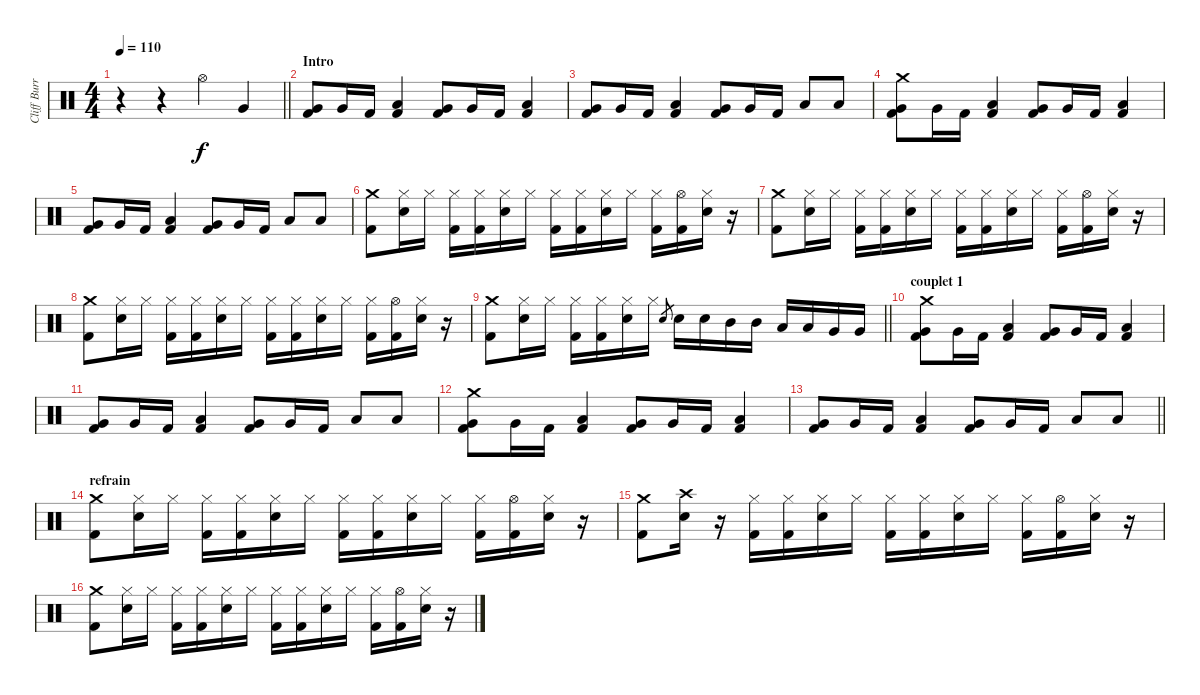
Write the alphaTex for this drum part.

\track ("Cliff Burr" "Cliff Burr") {instrument percussion}
\staff {score}
\articulation defaults
\ts (4 4)
\tempo 110
\clef neutral
\barLineRight lightlight
\ks c
r.4{dy f} r.4 "Hi-Hat (open)".4 "Very Low Tom (hit)".4 |
\section ("" "Intro")
("Very Low Tom (hit)" "Kick (hit) 2").8 "Very Low Tom (hit)".16 "Kick (hit) 2".16 ("Low Tom (hit)" "Kick (hit) 2").4 ("Very Low Tom (hit)" "Kick (hit) 2").8 "Very Low Tom (hit)".16 "Kick (hit) 2".16 ("Low Tom (hit)" "Kick (hit) 2").4 |
("Very Low Tom (hit)" "Kick (hit) 2").8 "Very Low Tom (hit)".16 "Kick (hit) 2".16 ("Low Tom (hit)" "Kick (hit) 2").4 ("Very Low Tom (hit)" "Kick (hit) 2").8 "Very Low Tom (hit)".16 "Kick (hit) 2".16 "Low Tom (hit)".8 "Low Tom (hit)".8 |
("Crash medium (hit)" "Very Low Tom (hit)" "Kick (hit) 2").8 "Very Low Tom (hit)".16 "Kick (hit) 2".16 ("Low Tom (hit)" "Kick (hit) 2").4 ("Very Low Tom (hit)" "Kick (hit) 2").8 "Very Low Tom (hit)".16 "Kick (hit) 2".16 ("Low Tom (hit)" "Kick (hit) 2").4 |
("Very Low Tom (hit)" "Kick (hit) 2").8 "Very Low Tom (hit)".16 "Kick (hit) 2".16 ("Low Tom (hit)" "Kick (hit) 2").4 ("Very Low Tom (hit)" "Kick (hit) 2").8 "Very Low Tom (hit)".16 "Kick (hit) 2".16 "Low Tom (hit)".8 "Low Tom (hit)".8 |
("Crash medium (hit)" "Kick (hit) 2").8 ("Hi-Hat (closed)" "Electric Snare (hit)").16 "Hi-Hat (closed)".16 ("Hi-Hat (closed)" "Kick (hit) 2").16 ("Hi-Hat (closed)" "Kick (hit) 2").16 ("Hi-Hat (closed)" "Electric Snare (hit)").16 "Hi-Hat (closed)".16 ("Hi-Hat (closed)" "Kick (hit) 2").16 ("Hi-Hat (closed)" "Kick (hit) 2").16 ("Hi-Hat (closed)" "Electric Snare (hit)").16 "Hi-Hat (closed)".16 ("Hi-Hat (closed)" "Kick (hit) 2").16 ("Hi-Hat (open)" "Kick (hit) 2").16 ("Hi-Hat (closed)" "Electric Snare (hit)").16 r.16 |
("Crash medium (hit)" "Kick (hit) 2").8 ("Hi-Hat (closed)" "Electric Snare (hit)").16 "Hi-Hat (closed)".16 ("Hi-Hat (closed)" "Kick (hit) 2").16 ("Hi-Hat (closed)" "Kick (hit) 2").16 ("Hi-Hat (closed)" "Electric Snare (hit)").16 "Hi-Hat (closed)".16 ("Hi-Hat (closed)" "Kick (hit) 2").16 ("Hi-Hat (closed)" "Kick (hit) 2").16 ("Hi-Hat (closed)" "Electric Snare (hit)").16 "Hi-Hat (closed)".16 ("Hi-Hat (closed)" "Kick (hit) 2").16 ("Hi-Hat (open)" "Kick (hit) 2").16 ("Hi-Hat (closed)" "Electric Snare (hit)").16 r.16 |
("Crash medium (hit)" "Kick (hit) 2").8 ("Hi-Hat (closed)" "Electric Snare (hit)").16 "Hi-Hat (closed)".16 ("Hi-Hat (closed)" "Kick (hit) 2").16 ("Hi-Hat (closed)" "Kick (hit) 2").16 ("Hi-Hat (closed)" "Electric Snare (hit)").16 "Hi-Hat (closed)".16 ("Hi-Hat (closed)" "Kick (hit) 2").16 ("Hi-Hat (closed)" "Kick (hit) 2").16 ("Hi-Hat (closed)" "Electric Snare (hit)").16 "Hi-Hat (closed)".16 ("Hi-Hat (closed)" "Kick (hit) 2").16 ("Hi-Hat (open)" "Kick (hit) 2").16 ("Hi-Hat (closed)" "Electric Snare (hit)").16 r.16 |
\barLineRight lightlight
("Crash medium (hit)" "Kick (hit) 2").8 ("Hi-Hat (closed)" "Electric Snare (hit)").16 "Hi-Hat (closed)".16 ("Hi-Hat (closed)" "Kick (hit) 2").16 ("Hi-Hat (closed)" "Kick (hit) 2").16 ("Hi-Hat (closed)" "Electric Snare (hit)").16 "Hi-Hat (closed)".16 "Electric Snare (hit)".8{gr} "Electric Snare (hit)".16 "Electric Snare (hit)".16 "Mid Tom (hit)".16 "Mid Tom (hit)".16 "Low Tom (hit)".16 "Low Tom (hit)".16 "Very Low Tom (hit)".16 "Very Low Tom (hit)".16 |
\section ("" "couplet 1")
("Crash medium (hit)" "Very Low Tom (hit)" "Kick (hit) 2").8 "Very Low Tom (hit)".16 "Kick (hit) 2".16 ("Low Tom (hit)" "Kick (hit) 2").4 ("Very Low Tom (hit)" "Kick (hit) 2").8 "Very Low Tom (hit)".16 "Kick (hit) 2".16 ("Low Tom (hit)" "Kick (hit) 2").4 |
("Very Low Tom (hit)" "Kick (hit) 2").8 "Very Low Tom (hit)".16 "Kick (hit) 2".16 ("Low Tom (hit)" "Kick (hit) 2").4 ("Very Low Tom (hit)" "Kick (hit) 2").8 "Very Low Tom (hit)".16 "Kick (hit) 2".16 "Low Tom (hit)".8 "Low Tom (hit)".8 |
("Crash medium (hit)" "Very Low Tom (hit)" "Kick (hit) 2").8 "Very Low Tom (hit)".16 "Kick (hit) 2".16 ("Low Tom (hit)" "Kick (hit) 2").4 ("Very Low Tom (hit)" "Kick (hit) 2").8 "Very Low Tom (hit)".16 "Kick (hit) 2".16 ("Low Tom (hit)" "Kick (hit) 2").4 |
\barLineRight lightlight
("Very Low Tom (hit)" "Kick (hit) 2").8 "Very Low Tom (hit)".16 "Kick (hit) 2".16 ("Low Tom (hit)" "Kick (hit) 2").4 ("Very Low Tom (hit)" "Kick (hit) 2").8 "Very Low Tom (hit)".16 "Kick (hit) 2".16 "Low Tom (hit)".8 "Low Tom (hit)".8 |
\section ("" "refrain")
("Crash medium (hit)" "Kick (hit) 2").8 ("Hi-Hat (closed)" "Electric Snare (hit)").16 "Hi-Hat (closed)".16 ("Hi-Hat (closed)" "Kick (hit) 2").16 ("Hi-Hat (closed)" "Kick (hit) 2").16 ("Hi-Hat (closed)" "Electric Snare (hit)").16 "Hi-Hat (closed)".16 ("Hi-Hat (closed)" "Kick (hit) 2").16 ("Hi-Hat (closed)" "Kick (hit) 2").16 ("Hi-Hat (closed)" "Electric Snare (hit)").16 "Hi-Hat (closed)".16 ("Hi-Hat (closed)" "Kick (hit) 2").16 ("Hi-Hat (open)" "Kick (hit) 2").16 ("Hi-Hat (closed)" "Electric Snare (hit)").16 r.16 |
("Crash medium (hit)" "Kick (hit) 2").8 ("Crash high (hit)" "Electric Snare (hit)").16 r.16 ("Hi-Hat (closed)" "Kick (hit) 2").16 ("Hi-Hat (closed)" "Kick (hit) 2").16 ("Hi-Hat (closed)" "Electric Snare (hit)").16 "Hi-Hat (closed)".16 ("Hi-Hat (closed)" "Kick (hit) 2").16 ("Hi-Hat (closed)" "Kick (hit) 2").16 ("Hi-Hat (closed)" "Electric Snare (hit)").16 "Hi-Hat (closed)".16 ("Hi-Hat (closed)" "Kick (hit) 2").16 ("Hi-Hat (open)" "Kick (hit) 2").16 ("Hi-Hat (closed)" "Electric Snare (hit)").16 r.16 |
("Crash medium (hit)" "Kick (hit) 2").8 ("Hi-Hat (closed)" "Electric Snare (hit)").16 "Hi-Hat (closed)".16 ("Hi-Hat (closed)" "Kick (hit) 2").16 ("Hi-Hat (closed)" "Kick (hit) 2").16 ("Hi-Hat (closed)" "Electric Snare (hit)").16 "Hi-Hat (closed)".16 ("Hi-Hat (closed)" "Kick (hit) 2").16 ("Hi-Hat (closed)" "Kick (hit) 2").16 ("Hi-Hat (closed)" "Electric Snare (hit)").16 "Hi-Hat (closed)".16 ("Hi-Hat (closed)" "Kick (hit) 2").16 ("Hi-Hat (open)" "Kick (hit) 2").16 ("Hi-Hat (closed)" "Electric Snare (hit)").16 r.16
